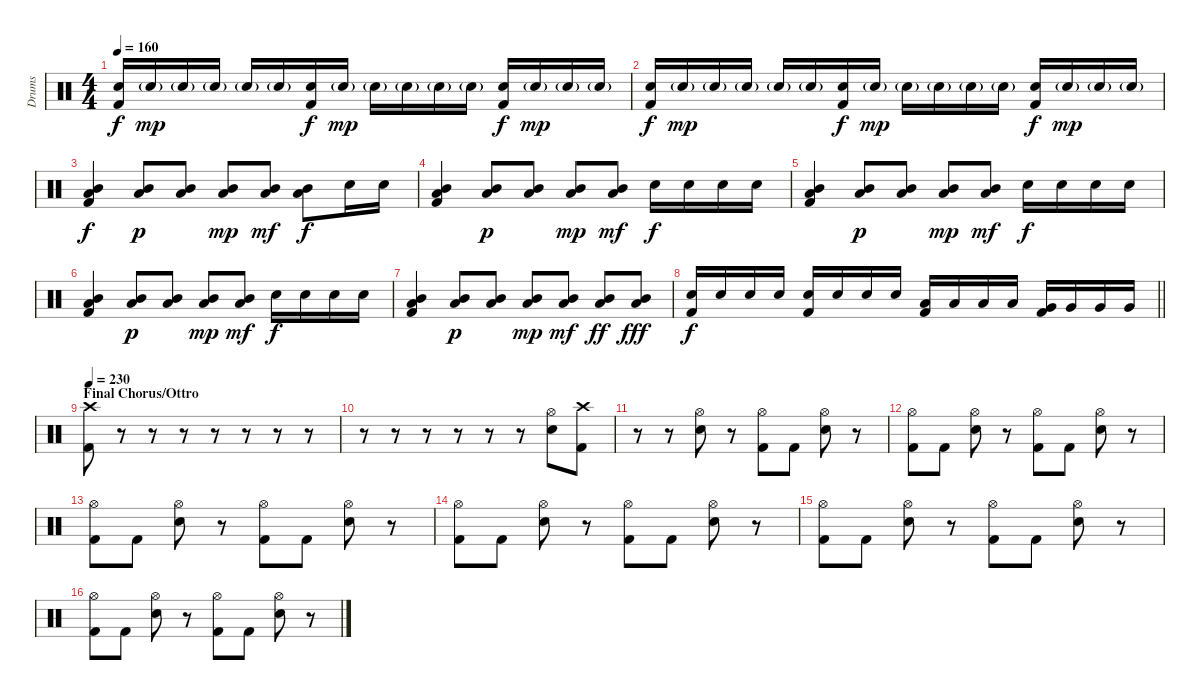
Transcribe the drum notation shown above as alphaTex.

\track ("Drums" "Drums") {instrument percussion}
\staff {score}
\articulation defaults
\ts (4 4)
\tempo 160
\clef neutral
\ks c
("Electric Snare (hit)" "Kick (hit) 2").16{dy f} "Electric Snare (hit)"{g}.16{dy mp} "Electric Snare (hit)"{g}.16 "Electric Snare (hit)"{g}.16 "Electric Snare (hit)"{g}.16 "Electric Snare (hit)"{g}.16 ("Electric Snare (hit)" "Kick (hit) 2").16{dy f} "Electric Snare (hit)"{g}.16{dy mp} "Electric Snare (hit)"{g}.16 "Electric Snare (hit)"{g}.16 "Electric Snare (hit)"{g}.16 "Electric Snare (hit)"{g}.16 ("Electric Snare (hit)" "Kick (hit) 2").16{dy f} "Electric Snare (hit)"{g}.16{dy mp} "Electric Snare (hit)"{g}.16 "Electric Snare (hit)"{g}.16 |
("Electric Snare (hit)" "Kick (hit) 2").16{dy f} "Electric Snare (hit)"{g}.16{dy mp} "Electric Snare (hit)"{g}.16 "Electric Snare (hit)"{g}.16 "Electric Snare (hit)"{g}.16 "Electric Snare (hit)"{g}.16 ("Electric Snare (hit)" "Kick (hit) 2").16{dy f} "Electric Snare (hit)"{g}.16{dy mp} "Electric Snare (hit)"{g}.16 "Electric Snare (hit)"{g}.16 "Electric Snare (hit)"{g}.16 "Electric Snare (hit)"{g}.16 ("Electric Snare (hit)" "Kick (hit) 2").16{dy f} "Electric Snare (hit)"{g}.16{dy mp} "Electric Snare (hit)"{g}.16 "Electric Snare (hit)"{g}.16 |
("Mid Tom (hit)" "Low Tom (hit)" "Kick (hit) 2").4{dy f} ("Mid Tom (hit)" "Low Tom (hit)").8{dy p} ("Mid Tom (hit)" "Low Tom (hit)").8 ("Mid Tom (hit)" "Low Tom (hit)").8{dy mp} ("Mid Tom (hit)" "Low Tom (hit)").8{dy mf} ("Mid Tom (hit)" "Low Tom (hit)").8{dy f} "Electric Snare (hit)".16 "Electric Snare (hit)".16 |
("Mid Tom (hit)" "Low Tom (hit)" "Kick (hit) 2").4 ("Mid Tom (hit)" "Low Tom (hit)").8{dy p} ("Mid Tom (hit)" "Low Tom (hit)").8 ("Mid Tom (hit)" "Low Tom (hit)").8{dy mp} ("Mid Tom (hit)" "Low Tom (hit)").8{dy mf} "Electric Snare (hit)".16{dy f} "Electric Snare (hit)".16 "Electric Snare (hit)".16 "Electric Snare (hit)".16 |
("Mid Tom (hit)" "Low Tom (hit)" "Kick (hit) 2").4 ("Mid Tom (hit)" "Low Tom (hit)").8{dy p} ("Mid Tom (hit)" "Low Tom (hit)").8 ("Mid Tom (hit)" "Low Tom (hit)").8{dy mp} ("Mid Tom (hit)" "Low Tom (hit)").8{dy mf} "Electric Snare (hit)".16{dy f} "Electric Snare (hit)".16 "Electric Snare (hit)".16 "Electric Snare (hit)".16 |
("Mid Tom (hit)" "Low Tom (hit)" "Kick (hit) 2").4 ("Mid Tom (hit)" "Low Tom (hit)").8{dy p} ("Mid Tom (hit)" "Low Tom (hit)").8 ("Mid Tom (hit)" "Low Tom (hit)").8{dy mp} ("Mid Tom (hit)" "Low Tom (hit)").8{dy mf} "Electric Snare (hit)".16{dy f} "Electric Snare (hit)".16 "Electric Snare (hit)".16 "Electric Snare (hit)".16 |
("Mid Tom (hit)" "Low Tom (hit)" "Kick (hit) 2").4 ("Mid Tom (hit)" "Low Tom (hit)").8{dy p} ("Mid Tom (hit)" "Low Tom (hit)").8 ("Mid Tom (hit)" "Low Tom (hit)").8{dy mp} ("Mid Tom (hit)" "Low Tom (hit)").8{dy mf} ("Mid Tom (hit)" "Low Tom (hit)").8{dy ff} ("Mid Tom (hit)" "Low Tom (hit)").8{dy fff} |
\barLineRight lightlight
("Electric Snare (hit)" "Kick (hit) 2").16{dy f} "Electric Snare (hit)".16 "Electric Snare (hit)".16 "Electric Snare (hit)".16 ("Electric Snare (hit)" "Kick (hit) 2").16 "Electric Snare (hit)".16 "Electric Snare (hit)".16 "Electric Snare (hit)".16 ("Low Tom (hit)" "Kick (hit) 2").16 "Low Tom (hit)".16 "Low Tom (hit)".16 "Low Tom (hit)".16 ("Very Low Tom (hit)" "Kick (hit) 2").16 "Very Low Tom (hit)".16 "Very Low Tom (hit)".16 "Very Low Tom (hit)".16 |
\section ("" "Final Chorus/Ottro")
\tempo 230
("Crash high (hit)" "Kick (hit) 2").8 r.8 r.8 r.8 r.8 r.8 r.8 r.8 |
r.8 r.8 r.8 r.8 r.8 r.8 ("Hi-Hat (open)" "Electric Snare (hit)").8 ("Crash high (hit)" "Kick (hit) 2").8 |
r.8 r.8 ("Hi-Hat (open)" "Electric Snare (hit)").8 r.8 ("Hi-Hat (open)" "Kick (hit) 2").8 "Kick (hit) 2".8 ("Hi-Hat (open)" "Electric Snare (hit)").8 r.8 |
("Hi-Hat (open)" "Kick (hit) 2").8 "Kick (hit) 2".8 ("Hi-Hat (open)" "Electric Snare (hit)").8 r.8 ("Hi-Hat (open)" "Kick (hit) 2").8 "Kick (hit) 2".8 ("Hi-Hat (open)" "Electric Snare (hit)").8 r.8 |
("Hi-Hat (open)" "Kick (hit) 2").8 "Kick (hit) 2".8 ("Hi-Hat (open)" "Electric Snare (hit)").8 r.8 ("Hi-Hat (open)" "Kick (hit) 2").8 "Kick (hit) 2".8 ("Hi-Hat (open)" "Electric Snare (hit)").8 r.8 |
("Hi-Hat (open)" "Kick (hit) 2").8 "Kick (hit) 2".8 ("Hi-Hat (open)" "Electric Snare (hit)").8 r.8 ("Hi-Hat (open)" "Kick (hit) 2").8 "Kick (hit) 2".8 ("Hi-Hat (open)" "Electric Snare (hit)").8 r.8 |
("Hi-Hat (open)" "Kick (hit) 2").8 "Kick (hit) 2".8 ("Hi-Hat (open)" "Electric Snare (hit)").8 r.8 ("Hi-Hat (open)" "Kick (hit) 2").8 "Kick (hit) 2".8 ("Hi-Hat (open)" "Electric Snare (hit)").8 r.8 |
("Hi-Hat (open)" "Kick (hit) 2").8 "Kick (hit) 2".8 ("Hi-Hat (open)" "Electric Snare (hit)").8 r.8 ("Hi-Hat (open)" "Kick (hit) 2").8 "Kick (hit) 2".8 ("Hi-Hat (open)" "Electric Snare (hit)").8 r.8
